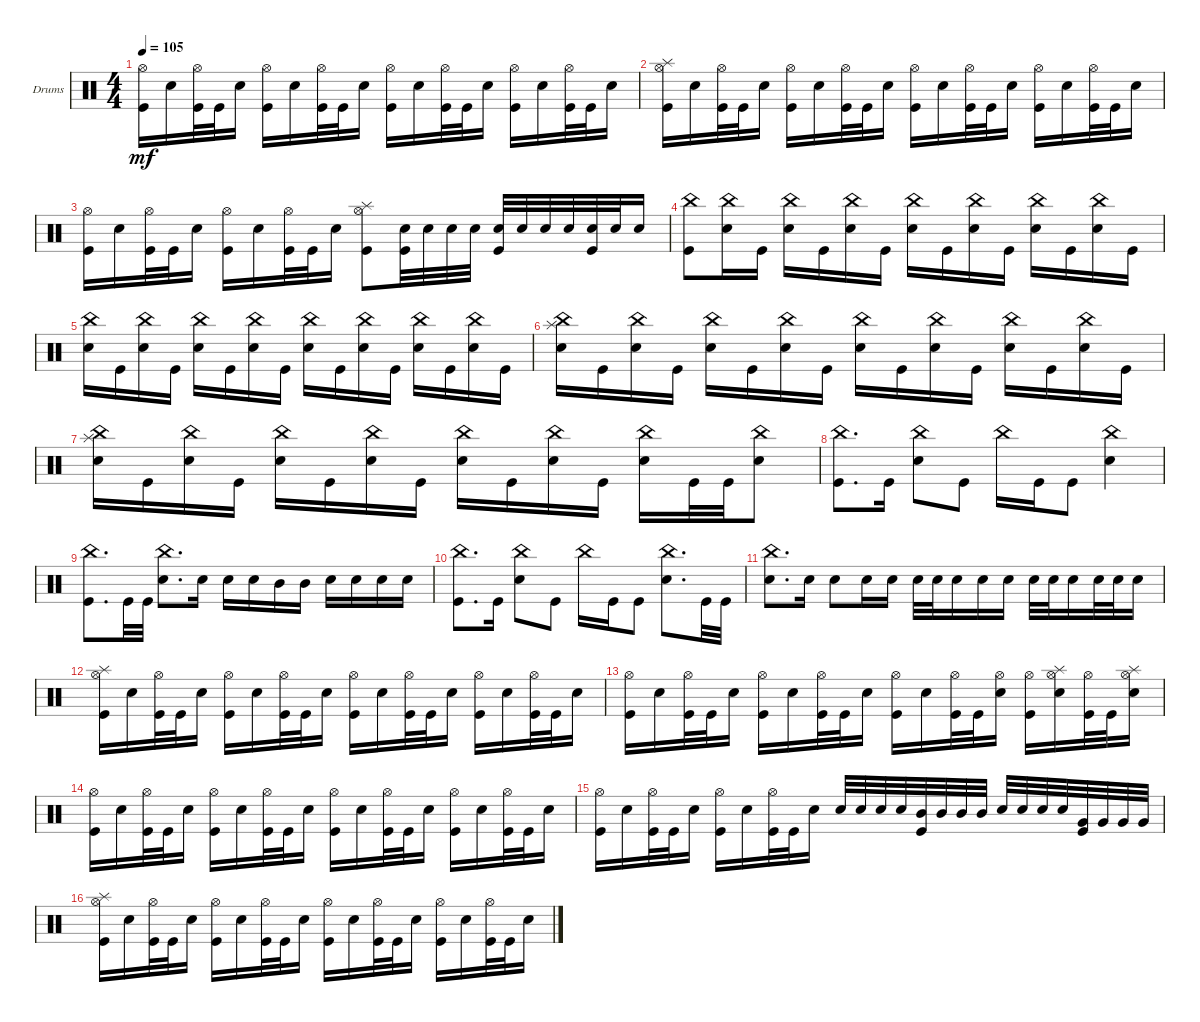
\defaultSystemsLayout 4
\bracketExtendMode groupsimilarinstruments
\firstSystemTrackNameOrientation horizontal
\otherSystemsTrackNameOrientation horizontal
\track ("Hell On da Drums" "Drums") {instrument percussion}
\staff {score}
\articulation defaults
\ts (4 4)
\tempo 105
\clef neutral
\ks c
("Kick (hit)" "Hi-Hat (open)").16{dy mf} "Snare (hit) 2".16 ("Kick (hit)" "Hi-Hat (open)").32 "Kick (hit)".32 "Snare (hit) 2".16 ("Kick (hit)" "Hi-Hat (open)").16 "Snare (hit) 2".16 ("Kick (hit)" "Hi-Hat (open)").32 "Kick (hit)".32 "Snare (hit) 2".16 ("Kick (hit)" "Hi-Hat (open)").16 "Snare (hit) 2".16 ("Kick (hit)" "Hi-Hat (open)").32 "Kick (hit)".32 "Snare (hit) 2".16 ("Kick (hit)" "Hi-Hat (open)").16 "Snare (hit) 2".16 ("Kick (hit)" "Hi-Hat (open)").32 "Kick (hit)".32 "Snare (hit) 2".16 |
("Kick (hit)" "Hi-Hat (open)" "Splash (hit)").16 "Snare (hit) 2".16 ("Kick (hit)" "Hi-Hat (open)").32 "Kick (hit)".32 "Snare (hit) 2".16 ("Kick (hit)" "Hi-Hat (open)").16 "Snare (hit) 2".16 ("Kick (hit)" "Hi-Hat (open)").32 "Kick (hit)".32 "Snare (hit) 2".16 ("Kick (hit)" "Hi-Hat (open)").16 "Snare (hit) 2".16 ("Kick (hit)" "Hi-Hat (open)").32 "Kick (hit)".32 "Snare (hit) 2".16 ("Kick (hit)" "Hi-Hat (open)").16 "Snare (hit) 2".16 ("Kick (hit)" "Hi-Hat (open)").32 "Kick (hit)".32 "Snare (hit) 2".16 |
("Kick (hit)" "Hi-Hat (open)").16 "Snare (hit) 2".16 ("Kick (hit)" "Hi-Hat (open)").32 "Kick (hit)".32 "Snare (hit) 2".16 ("Kick (hit)" "Hi-Hat (open)").16 "Snare (hit) 2".16 ("Kick (hit)" "Hi-Hat (open)").32 "Kick (hit)".32 "Snare (hit) 2".16 ("Kick (hit)" "Hi-Hat (open)" "Splash (hit)").8 ("Kick (hit)" "Snare (hit) 2").32 "Snare (hit) 2".32 "Snare (hit) 2".32 "Snare (hit) 2".32 ("Kick (hit)" "Snare (hit) 2").32 "Snare (hit) 2".32 "Snare (hit) 2".32 "Snare (hit) 2".32 ("Kick (hit)" "Snare (hit) 2").32 "Snare (hit) 2".32 "Snare (hit) 2".16 |
("Kick (hit)" "China (hit)").8 ("Snare (hit) 2" "China (hit)").16 "Kick (hit)".16 ("Snare (hit) 2" "China (hit)").16 "Kick (hit)".16 ("Snare (hit) 2" "China (hit)").16 "Kick (hit)".16 ("Snare (hit) 2" "China (hit)").16 "Kick (hit)".16 ("Snare (hit) 2" "China (hit)").16 "Kick (hit)".16 ("Snare (hit) 2" "China (hit)").16 "Kick (hit)".16 ("Snare (hit) 2" "China (hit)").16 "Kick (hit)".16 |
("Snare (hit) 2" "China (hit)").16 "Kick (hit)".16 ("Snare (hit) 2" "China (hit)").16 "Kick (hit)".16 ("Snare (hit) 2" "China (hit)").16 "Kick (hit)".16 ("Snare (hit) 2" "China (hit)").16 "Kick (hit)".16 ("Snare (hit) 2" "China (hit)").16 "Kick (hit)".16 ("Snare (hit) 2" "China (hit)").16 "Kick (hit)".16 ("Snare (hit) 2" "China (hit)").16 "Kick (hit)".16 ("Snare (hit) 2" "China (hit)").16 "Kick (hit)".16 |
("Snare (hit) 2" "China (hit)" "Splash (hit)").16 "Kick (hit)".16 ("Snare (hit) 2" "China (hit)").16 "Kick (hit)".16 ("Snare (hit) 2" "China (hit)").16 "Kick (hit)".16 ("Snare (hit) 2" "China (hit)").16 "Kick (hit)".16 ("Snare (hit) 2" "China (hit)").16 "Kick (hit)".16 ("Snare (hit) 2" "China (hit)").16 "Kick (hit)".16 ("Snare (hit) 2" "China (hit)").16 "Kick (hit)".16 ("Snare (hit) 2" "China (hit)").16 "Kick (hit)".16 |
("Snare (hit) 2" "China (hit)" "Splash (hit)").16 "Kick (hit)".16 ("Snare (hit) 2" "China (hit)").16 "Kick (hit)".16 ("Snare (hit) 2" "China (hit)").16 "Kick (hit)".16 ("Snare (hit) 2" "China (hit)").16 "Kick (hit)".16 ("Snare (hit) 2" "China (hit)").16 "Kick (hit)".16 ("Snare (hit) 2" "China (hit)").16 "Kick (hit)".16 ("Snare (hit) 2" "China (hit)").16 "Kick (hit)".32 "Kick (hit)".32 ("Snare (hit) 2" "China (hit)").8 |
("Kick (hit)" "China (hit)").8{d} "Kick (hit)".16 ("Snare (hit) 2" "China (hit)").8 "Kick (hit)".8 "China (hit)".16 "Kick (hit)".16 "Kick (hit)".8 ("Snare (hit) 2" "China (hit)").4 |
("Kick (hit)" "China (hit)").8{d} "Kick (hit)".32 "Kick (hit)".32 ("Snare (hit) 2" "China (hit)").8{d} "Snare (hit) 2".16 "Snare (hit) 2".16 "Snare (hit) 2".16 "Mid Tom (hit)".16 "Mid Tom (hit)".16 "Snare (hit) 2".16 "Snare (hit) 2".16 "Snare (hit) 2".16 "Snare (hit) 2".16 |
("Kick (hit)" "China (hit)").8{d} "Kick (hit)".16 ("Snare (hit) 2" "China (hit)").8 "Kick (hit)".8 "China (hit)".16 "Kick (hit)".16 "Kick (hit)".8 ("Snare (hit) 2" "China (hit)").8{d} "Kick (hit)".32 "Kick (hit)".32 |
("Snare (hit) 2" "China (hit)").8{d} "Snare (hit) 2".16 "Snare (hit) 2".8 "Snare (hit) 2".16 "Snare (hit) 2".16 "Snare (hit) 2".32 "Snare (hit) 2".32 "Snare (hit) 2".16 "Snare (hit) 2".16 "Snare (hit) 2".16 "Snare (hit) 2".32 "Snare (hit) 2".32 "Snare (hit) 2".16 "Snare (hit) 2".32 "Snare (hit) 2".32 "Snare (hit) 2".16 |
("Kick (hit)" "Hi-Hat (open)" "Splash (hit)").16 "Snare (hit) 2".16 ("Kick (hit)" "Hi-Hat (open)").32 "Kick (hit)".32 "Snare (hit) 2".16 ("Kick (hit)" "Hi-Hat (open)").16 "Snare (hit) 2".16 ("Kick (hit)" "Hi-Hat (open)").32 "Kick (hit)".32 "Snare (hit) 2".16 ("Kick (hit)" "Hi-Hat (open)").16 "Snare (hit) 2".16 ("Kick (hit)" "Hi-Hat (open)").32 "Kick (hit)".32 "Snare (hit) 2".16 ("Kick (hit)" "Hi-Hat (open)").16 "Snare (hit) 2".16 ("Kick (hit)" "Hi-Hat (open)").32 "Kick (hit)".32 "Snare (hit) 2".16 |
("Hi-Hat (open)" "Kick (hit)").16 "Snare (hit) 2".16 ("Kick (hit)" "Hi-Hat (open)").32 "Kick (hit)".32 "Snare (hit) 2".16 ("Kick (hit)" "Hi-Hat (open)").16 "Snare (hit) 2".16 ("Kick (hit)" "Hi-Hat (open)").32 "Kick (hit)".32 "Snare (hit) 2".16 ("Kick (hit)" "Hi-Hat (open)").16 "Snare (hit) 2".16 ("Kick (hit)" "Hi-Hat (open)").32 "Kick (hit)".32 ("Snare (hit) 2" "Hi-Hat (open)").16 ("Kick (hit)" "Hi-Hat (open)").16 ("Snare (hit) 2" "Hi-Hat (open)" "Splash (hit)").16 ("Kick (hit)" "Hi-Hat (open)").32 "Kick (hit)".32 ("Snare (hit) 2" "Hi-Hat (open)" "Splash (hit)").16 |
("Kick (hit)" "Hi-Hat (open)").16 "Snare (hit) 2".16 ("Kick (hit)" "Hi-Hat (open)").32 "Kick (hit)".32 "Snare (hit) 2".16 ("Kick (hit)" "Hi-Hat (open)").16 "Snare (hit) 2".16 ("Kick (hit)" "Hi-Hat (open)").32 "Kick (hit)".32 "Snare (hit) 2".16 ("Kick (hit)" "Hi-Hat (open)").16 "Snare (hit) 2".16 ("Kick (hit)" "Hi-Hat (open)").32 "Kick (hit)".32 "Snare (hit) 2".16 ("Kick (hit)" "Hi-Hat (open)").16 "Snare (hit) 2".16 ("Kick (hit)" "Hi-Hat (open)").32 "Kick (hit)".32 "Snare (hit) 2".16 |
("Kick (hit)" "Hi-Hat (open)").16 "Snare (hit) 2".16 ("Kick (hit)" "Hi-Hat (open)").32 "Kick (hit)".32 "Snare (hit) 2".16 ("Kick (hit)" "Hi-Hat (open)").16 "Snare (hit) 2".16 ("Kick (hit)" "Hi-Hat (open)").32 "Kick (hit)".32 "Snare (hit) 2".16 "Snare (hit) 2".32 "Snare (hit) 2".32 "Snare (hit) 2".32 "Snare (hit) 2".32 ("Mid Tom (hit)" "Kick (hit)").32 "Mid Tom (hit)".32 "Mid Tom (hit)".32 "Mid Tom (hit)".32 "Snare (hit) 2".32 "Snare (hit) 2".32 "Snare (hit) 2".32 "Snare (hit) 2".32 ("Very Low Tom (hit)" "Kick (hit)").32 "Very Low Tom (hit)".32 "Very Low Tom (hit)".32 "Very Low Tom (hit)".32 |
("Kick (hit)" "Hi-Hat (open)" "Splash (hit)").16 "Snare (hit) 2".16 ("Kick (hit)" "Hi-Hat (open)").32 "Kick (hit)".32 "Snare (hit) 2".16 ("Kick (hit)" "Hi-Hat (open)").16 "Snare (hit) 2".16 ("Kick (hit)" "Hi-Hat (open)").32 "Kick (hit)".32 "Snare (hit) 2".16 ("Kick (hit)" "Hi-Hat (open)").16 "Snare (hit) 2".16 ("Kick (hit)" "Hi-Hat (open)").32 "Kick (hit)".32 "Snare (hit) 2".16 ("Kick (hit)" "Hi-Hat (open)").16 "Snare (hit) 2".16 ("Kick (hit)" "Hi-Hat (open)").32 "Kick (hit)".32 "Snare (hit) 2".16
